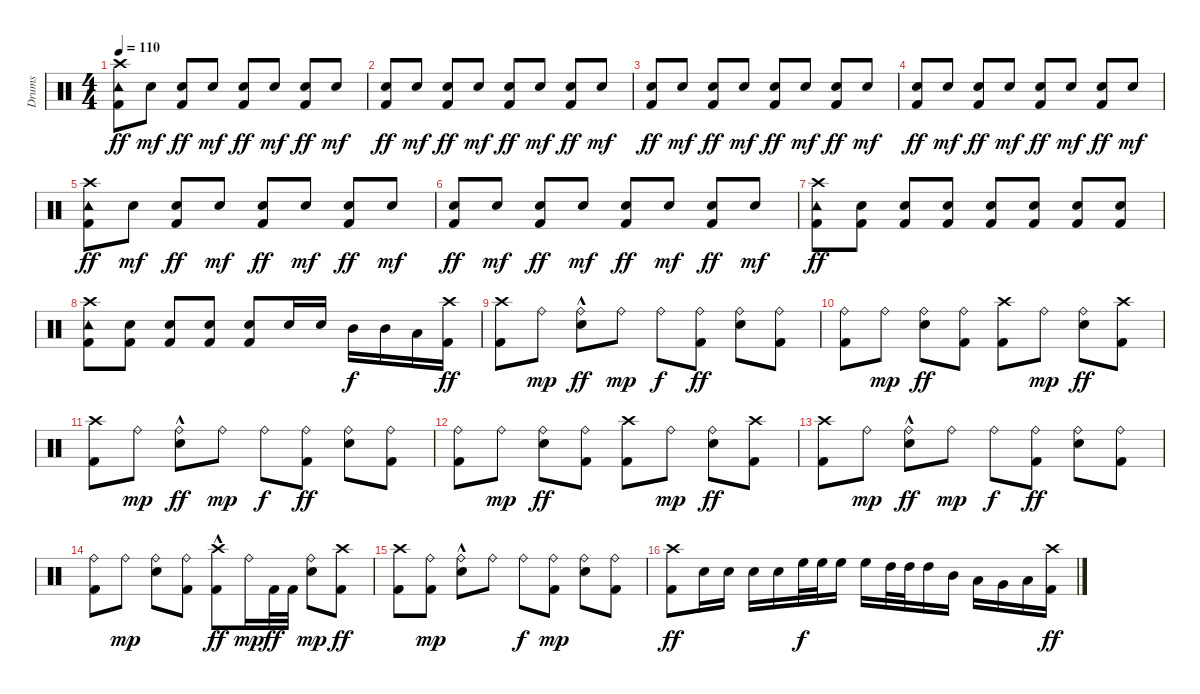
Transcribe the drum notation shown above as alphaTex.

\track ("Drums" "Drums") {instrument percussion}
\staff {score}
\articulation defaults
\ts (4 4)
\tempo 110
\clef neutral
\ks c
("Crash high (hit)" "Tambourine (hit)" "Kick (hit) 2").8{dy ff} "Snare (hit) 2".8{dy mf} ("Snare (hit) 2" "Kick (hit) 2").8{dy ff} "Snare (hit) 2".8{dy mf} ("Snare (hit) 2" "Kick (hit) 2").8{dy ff} "Snare (hit) 2".8{dy mf} ("Snare (hit) 2" "Kick (hit) 2").8{dy ff} "Snare (hit) 2".8{dy mf} |
("Snare (hit) 2" "Kick (hit) 2").8{dy ff} "Snare (hit) 2".8{dy mf} ("Snare (hit) 2" "Kick (hit) 2").8{dy ff} "Snare (hit) 2".8{dy mf} ("Snare (hit) 2" "Kick (hit) 2").8{dy ff} "Snare (hit) 2".8{dy mf} ("Snare (hit) 2" "Kick (hit) 2").8{dy ff} "Snare (hit) 2".8{dy mf} |
("Snare (hit) 2" "Kick (hit) 2").8{dy ff} "Snare (hit) 2".8{dy mf} ("Snare (hit) 2" "Kick (hit) 2").8{dy ff} "Snare (hit) 2".8{dy mf} ("Snare (hit) 2" "Kick (hit) 2").8{dy ff} "Snare (hit) 2".8{dy mf} ("Snare (hit) 2" "Kick (hit) 2").8{dy ff} "Snare (hit) 2".8{dy mf} |
("Snare (hit) 2" "Kick (hit) 2").8{dy ff} "Snare (hit) 2".8{dy mf} ("Snare (hit) 2" "Kick (hit) 2").8{dy ff} "Snare (hit) 2".8{dy mf} ("Snare (hit) 2" "Kick (hit) 2").8{dy ff} "Snare (hit) 2".8{dy mf} ("Snare (hit) 2" "Kick (hit) 2").8{dy ff} "Snare (hit) 2".8{dy mf} |
("Tambourine (hit)" "Crash high (hit)" "Kick (hit) 2").8{dy ff} "Snare (hit) 2".8{dy mf} ("Snare (hit) 2" "Kick (hit) 2").8{dy ff} "Snare (hit) 2".8{dy mf} ("Snare (hit) 2" "Kick (hit) 2").8{dy ff} "Snare (hit) 2".8{dy mf} ("Snare (hit) 2" "Kick (hit) 2").8{dy ff} "Snare (hit) 2".8{dy mf} |
("Snare (hit) 2" "Kick (hit) 2").8{dy ff} "Snare (hit) 2".8{dy mf} ("Snare (hit) 2" "Kick (hit) 2").8{dy ff} "Snare (hit) 2".8{dy mf} ("Snare (hit) 2" "Kick (hit) 2").8{dy ff} "Snare (hit) 2".8{dy mf} ("Snare (hit) 2" "Kick (hit) 2").8{dy ff} "Snare (hit) 2".8{dy mf} |
("Crash high (hit)" "Tambourine (hit)" "Kick (hit) 2").8{dy ff} ("Snare (hit) 2" "Kick (hit) 2").8 ("Snare (hit) 2" "Kick (hit) 2").8 ("Snare (hit) 2" "Kick (hit) 2").8 ("Snare (hit) 2" "Kick (hit) 2").8 ("Snare (hit) 2" "Kick (hit) 2").8 ("Snare (hit) 2" "Kick (hit) 2").8 ("Snare (hit) 2" "Kick (hit) 2").8 |
("Tambourine (hit)" "Crash high (hit)" "Kick (hit) 2").8 ("Snare (hit) 2" "Kick (hit) 2").8 ("Snare (hit) 2" "Kick (hit) 2").8 ("Snare (hit) 2" "Kick (hit) 2").8 ("Snare (hit) 2" "Kick (hit) 2").8 "Electric Snare (hit)".16 "Electric Snare (hit)".16 "Mid Tom (hit)".16{dy f} "Mid Tom (hit)".16 "Low Tom (hit)".16 ("Crash high (hit)" "Kick (hit) 2").16{dy ff} |
("Crash high (hit)" "Kick (hit) 2").8 "Ride (bell)".8{dy mp} ("Ride (bell)" "Electric Snare (hit)"{hac}).8{dy ff} "Ride (bell)".8{dy mp} "Ride (bell)".8{dy f} ("Ride (bell)" "Kick (hit) 2").8{dy ff} ("Ride (bell)" "Electric Snare (hit)").8 ("Ride (bell)" "Kick (hit) 2").8 |
("Ride (bell)" "Kick (hit) 2").8 "Ride (bell)".8{dy mp} ("Ride (bell)" "Electric Snare (hit)").8{dy ff} ("Ride (bell)" "Kick (hit) 2").8 ("Crash high (hit)" "Kick (hit) 2").8 "Ride (bell)".8{dy mp} ("Ride (bell)" "Electric Snare (hit)").8{dy ff} ("Crash high (hit)" "Kick (hit) 2").8 |
("Crash high (hit)" "Kick (hit) 2").8 "Ride (bell)".8{dy mp} ("Ride (bell)" "Electric Snare (hit)"{hac}).8{dy ff} "Ride (bell)".8{dy mp} "Ride (bell)".8{dy f} ("Ride (bell)" "Kick (hit) 2").8{dy ff} ("Ride (bell)" "Electric Snare (hit)").8 ("Ride (bell)" "Kick (hit) 2").8 |
("Ride (bell)" "Kick (hit) 2").8 "Ride (bell)".8{dy mp} ("Ride (bell)" "Electric Snare (hit)").8{dy ff} ("Ride (bell)" "Kick (hit) 2").8 ("Crash high (hit)" "Kick (hit) 2").8 "Ride (bell)".8{dy mp} ("Ride (bell)" "Electric Snare (hit)").8{dy ff} ("Crash high (hit)" "Kick (hit) 2").8 |
("Crash high (hit)" "Kick (hit) 2").8 "Ride (bell)".8{dy mp} ("Ride (bell)" "Electric Snare (hit)"{hac}).8{dy ff} "Ride (bell)".8{dy mp} "Ride (bell)".8{dy f} ("Ride (bell)" "Kick (hit) 2").8{dy ff} ("Ride (bell)" "Electric Snare (hit)").8 ("Ride (bell)" "Kick (hit) 2").8 |
("Kick (hit) 2" "Ride (bell)").8 "Ride (bell)".8{dy mp} ("Electric Snare (hit)" "Ride (bell)").8 ("Kick (hit) 2" "Ride (bell)").8 ("Crash high (hit)" "Kick (hit) 2"{hac}).8{dy ff} "Ride (bell)".16{dy mp} "Kick (hit) 2".32{dy ff} "Kick (hit) 2".32 ("Electric Snare (hit)" "Ride (bell)").8{dy mp} ("Crash high (hit)" "Kick (hit) 2").8{dy ff} |
("Crash high (hit)" "Kick (hit) 2").8 ("Kick (hit) 2" "Ride (bell)").8{dy mp} ("Electric Snare (hit)"{hac} "Ride (bell)").8 "Ride (bell)".8 "Ride (bell)".8{dy f} ("Kick (hit) 2" "Ride (bell)").8{dy mp} ("Electric Snare (hit)" "Ride (bell)").8 ("Kick (hit) 2" "Ride (bell)").8 |
("Crash high (hit)" "Kick (hit) 2").8{dy ff} "Electric Snare (hit)".16 "Electric Snare (hit)".16 "Electric Snare (hit)".16 "Electric Snare (hit)".16 "High Floor Tom (hit)".32{dy f} "High Floor Tom (hit)".32 "High Floor Tom (hit)".16 "High Floor Tom (hit)".16 "High Tom (hit)".32 "High Tom (hit)".32 "High Tom (hit)".16 "Mid Tom (hit)".16 "Low Tom (hit)".16 "Very Low Tom (hit)".16 "Low Floor Tom (hit)".16 ("Crash high (hit)" "Kick (hit) 2").16{dy ff}
